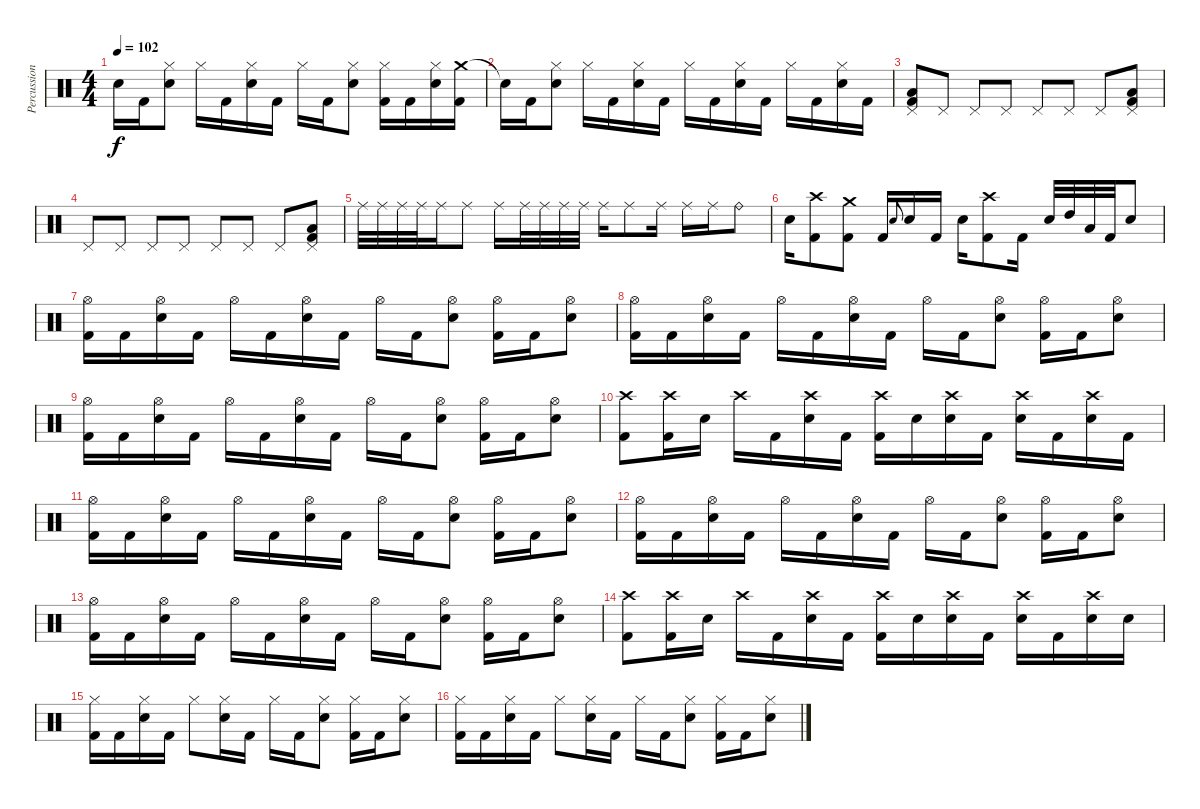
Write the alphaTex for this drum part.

\track ("Percussion" "Percussion") {instrument percussion}
\staff {score}
\articulation defaults
\ts (4 4)
\tempo 102
\clef neutral
\ks c "Snare (hit)"{t}.16{dy f} "Kick (hit) 2".16
("Hi-Hat (closed)" "Snare (hit) 2").8 "Hi-Hat (closed)".16 "Kick (hit) 2".16 ("Hi-Hat (closed)" "Snare (hit) 2").16 "Kick (hit) 2".16 "Hi-Hat (closed)".16 "Kick (hit) 2".16 ("Hi-Hat (closed)" "Snare (hit) 2").8 ("Hi-Hat (closed)" "Kick (hit) 2").16 "Kick (hit) 2".16 ("Hi-Hat (closed)" "Snare (hit) 2").16 ("Crash medium (hit)" "Kick (hit) 2").16 |
"Snare (hit)"{t}.16 "Kick (hit) 2".16 ("Hi-Hat (closed)" "Snare (hit) 2").8 "Hi-Hat (closed)".16 "Kick (hit) 2".16 ("Hi-Hat (closed)" "Snare (hit) 2").16 "Kick (hit) 2".16 "Hi-Hat (closed)".16 "Kick (hit) 2".16 ("Hi-Hat (closed)" "Snare (hit) 2").16 "Kick (hit) 2".16 "Hi-Hat (closed)".16 "Kick (hit) 2".16 ("Hi-Hat (closed)" "Snare (hit) 2").16 "Kick (hit) 2".16 |
("Pedal Hi-Hat (hit)" "Low Tom (hit)" "Kick (hit) 2").8 "Pedal Hi-Hat (hit)".8 "Pedal Hi-Hat (hit)".8 "Pedal Hi-Hat (hit)".8 "Pedal Hi-Hat (hit)".8 "Pedal Hi-Hat (hit)".8 "Pedal Hi-Hat (hit)".8 ("Pedal Hi-Hat (hit)" "Low Tom (hit)" "Kick (hit) 2").8 |
"Pedal Hi-Hat (hit)".8 "Pedal Hi-Hat (hit)".8 "Pedal Hi-Hat (hit)".8 "Pedal Hi-Hat (hit)".8 "Pedal Hi-Hat (hit)".8 "Pedal Hi-Hat (hit)".8 "Pedal Hi-Hat (hit)".8 ("Pedal Hi-Hat (hit)" "Low Tom (hit)" "Kick (hit) 2").8 |
"Ride (middle)".32 "Ride (middle)".32 "Ride (middle)".32 "Ride (middle)".32 "Ride (middle)".16 "Ride (middle)".8 "Ride (middle)".16 "Ride (middle)".32 "Ride (middle)".32 "Ride (middle)".32 "Ride (middle)".32 "Ride (middle)".16 "Ride (middle)".8 "Ride (middle)".16 "Ride (middle)".16 "Ride (middle)".16 "Ride (bell)".8 |
"Snare (hit) 2".16 ("Crash high (hit)" "Kick (hit) 2").8 ("Crash medium (hit)" "Kick (hit) 2").8 "Kick (hit) 2".16 "Snare (hit) 2".8{gr onbeat} "Snare (hit) 2".16 "Kick (hit) 2".16 "Snare (hit) 2".16 ("Crash high (hit)" "Kick (hit) 2").8 "Kick (hit) 2".16 "Snare (hit) 2".32 "High Tom (hit)".32 "Low Tom (hit)".32 "Kick (hit) 2".32 "Snare (hit) 2".8 |
("Hi-Hat (open)" "Kick (hit) 2").16 "Kick (hit) 2".16 ("Hi-Hat (open)" "Snare (hit) 2").16 "Kick (hit) 2".16 "Hi-Hat (open)".16 "Kick (hit) 2".16 ("Hi-Hat (open)" "Snare (hit) 2").16 "Kick (hit) 2".16 "Hi-Hat (open)".16 "Kick (hit) 2".16 ("Hi-Hat (open)" "Snare (hit) 2").8 ("Hi-Hat (open)" "Kick (hit) 2").16 "Kick (hit) 2".16 ("Hi-Hat (open)" "Snare (hit) 2").8 |
("Hi-Hat (open)" "Kick (hit) 2").16 "Kick (hit) 2".16 ("Hi-Hat (open)" "Snare (hit) 2").16 "Kick (hit) 2".16 "Hi-Hat (open)".16 "Kick (hit) 2".16 ("Hi-Hat (open)" "Snare (hit) 2").16 "Kick (hit) 2".16 "Hi-Hat (open)".16 "Kick (hit) 2".16 ("Hi-Hat (open)" "Snare (hit) 2").8 ("Hi-Hat (open)" "Kick (hit) 2").16 "Kick (hit) 2".16 ("Hi-Hat (open)" "Snare (hit) 2").8 |
("Hi-Hat (open)" "Kick (hit) 2").16 "Kick (hit) 2".16 ("Hi-Hat (open)" "Snare (hit) 2").16 "Kick (hit) 2".16 "Hi-Hat (open)".16 "Kick (hit) 2".16 ("Hi-Hat (open)" "Snare (hit) 2").16 "Kick (hit) 2".16 "Hi-Hat (open)".16 "Kick (hit) 2".16 ("Hi-Hat (open)" "Snare (hit) 2").8 ("Hi-Hat (open)" "Kick (hit) 2").16 "Kick (hit) 2".16 ("Hi-Hat (open)" "Snare (hit) 2").8 |
("Crash high (hit)" "Kick (hit) 2").8 ("Crash high (hit)" "Kick (hit) 2").16 "Snare (hit) 2".16 "Crash high (hit)".16 "Kick (hit) 2".16 ("Crash high (hit)" "Snare (hit) 2").16 "Kick (hit) 2".16 ("Crash high (hit)" "Kick (hit) 2").16 "Snare (hit) 2".16 ("Crash high (hit)" "Snare (hit) 2").16 "Kick (hit) 2".16 ("Crash high (hit)" "Snare (hit) 2").16 "Kick (hit) 2".16 ("Crash high (hit)" "Snare (hit) 2").16 "Kick (hit) 2".16 |
("Hi-Hat (open)" "Kick (hit) 2").16 "Kick (hit) 2".16 ("Hi-Hat (open)" "Snare (hit) 2").16 "Kick (hit) 2".16 "Hi-Hat (open)".16 "Kick (hit) 2".16 ("Hi-Hat (open)" "Snare (hit) 2").16 "Kick (hit) 2".16 "Hi-Hat (open)".16 "Kick (hit) 2".16 ("Hi-Hat (open)" "Snare (hit) 2").8 ("Hi-Hat (open)" "Kick (hit) 2").16 "Kick (hit) 2".16 ("Hi-Hat (open)" "Snare (hit) 2").8 |
("Hi-Hat (open)" "Kick (hit) 2").16 "Kick (hit) 2".16 ("Hi-Hat (open)" "Snare (hit) 2").16 "Kick (hit) 2".16 "Hi-Hat (open)".16 "Kick (hit) 2".16 ("Hi-Hat (open)" "Snare (hit) 2").16 "Kick (hit) 2".16 "Hi-Hat (open)".16 "Kick (hit) 2".16 ("Hi-Hat (open)" "Snare (hit) 2").8 ("Hi-Hat (open)" "Kick (hit) 2").16 "Kick (hit) 2".16 ("Hi-Hat (open)" "Snare (hit) 2").8 |
("Hi-Hat (open)" "Kick (hit) 2").16 "Kick (hit) 2".16 ("Hi-Hat (open)" "Snare (hit) 2").16 "Kick (hit) 2".16 "Hi-Hat (open)".16 "Kick (hit) 2".16 ("Hi-Hat (open)" "Snare (hit) 2").16 "Kick (hit) 2".16 "Hi-Hat (open)".16 "Kick (hit) 2".16 ("Hi-Hat (open)" "Snare (hit) 2").8 ("Hi-Hat (open)" "Kick (hit) 2").16 "Kick (hit) 2".16 ("Hi-Hat (open)" "Snare (hit) 2").8 |
("Crash high (hit)" "Kick (hit) 2").8 ("Crash high (hit)" "Kick (hit) 2").16 "Snare (hit) 2".16 "Crash high (hit)".16 "Kick (hit) 2".16 ("Crash high (hit)" "Snare (hit) 2").16 "Kick (hit) 2".16 ("Crash high (hit)" "Kick (hit) 2").16 "Snare (hit) 2".16 ("Crash high (hit)" "Snare (hit) 2").16 "Kick (hit) 2".16 ("Crash high (hit)" "Snare (hit) 2").16 "Kick (hit) 2".16 ("Crash high (hit)" "Snare (hit) 2").16 "Snare (hit) 2".16 |
("Hi-Hat (closed)" "Kick (hit) 2").16 "Kick (hit) 2".16 ("Hi-Hat (closed)" "Snare (hit) 2").16 "Kick (hit) 2".16 "Hi-Hat (closed)".8 ("Hi-Hat (closed)" "Snare (hit) 2").16 "Kick (hit) 2".16 "Hi-Hat (closed)".16 "Kick (hit) 2".16 ("Hi-Hat (closed)" "Snare (hit) 2").8 ("Hi-Hat (closed)" "Kick (hit) 2").16 "Kick (hit) 2".16 ("Hi-Hat (closed)" "Snare (hit) 2").8 |
("Hi-Hat (closed)" "Kick (hit) 2").16 "Kick (hit) 2".16 ("Hi-Hat (closed)" "Snare (hit) 2").16 "Kick (hit) 2".16 "Hi-Hat (closed)".8 ("Hi-Hat (closed)" "Snare (hit) 2").16 "Kick (hit) 2".16 "Hi-Hat (closed)".16 "Kick (hit) 2".16 ("Hi-Hat (closed)" "Snare (hit) 2").8 ("Hi-Hat (closed)" "Kick (hit) 2").16 "Kick (hit) 2".16 ("Hi-Hat (closed)" "Snare (hit) 2").8
